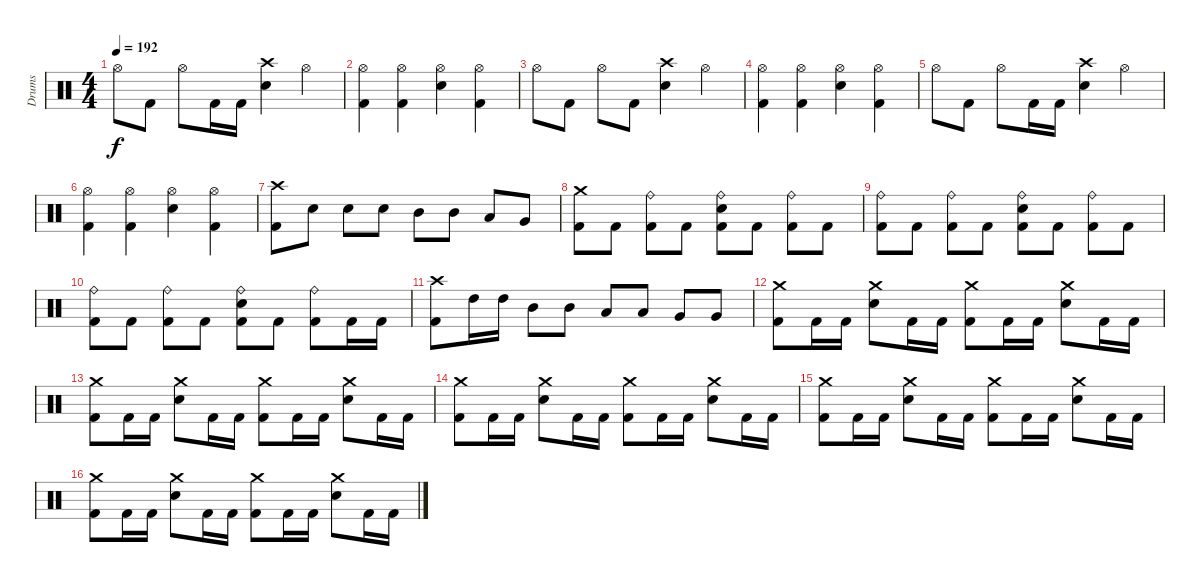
\track ("Drums" "Drums") {instrument percussion}
\staff {score}
\articulation defaults
\ts (4 4)
\tempo 192
\clef neutral
\ks c "Hi-Hat (open)".8{dy f} "Kick (hit) 2".8 "Hi-Hat (open)".8 "Kick (hit) 2".16 "Kick (hit) 2".16
("Crash high (hit)" "Electric Snare (hit)").4 "Hi-Hat (open)".4 |
("Hi-Hat (open)" "Kick (hit) 2").4 ("Hi-Hat (open)" "Kick (hit) 2").4 ("Hi-Hat (open)" "Electric Snare (hit)").4 ("Hi-Hat (open)" "Kick (hit) 2").4 |
"Hi-Hat (open)".8 "Kick (hit) 2".8 "Hi-Hat (open)".8 "Kick (hit) 2".8 ("Crash high (hit)" "Electric Snare (hit)").4 "Hi-Hat (open)".4 |
("Hi-Hat (open)" "Kick (hit) 2").4 ("Hi-Hat (open)" "Kick (hit) 2").4 ("Hi-Hat (open)" "Electric Snare (hit)").4 ("Hi-Hat (open)" "Kick (hit) 2").4 |
"Hi-Hat (open)".8 "Kick (hit) 2".8 "Hi-Hat (open)".8 "Kick (hit) 2".16 "Kick (hit) 2".16 ("Crash high (hit)" "Electric Snare (hit)").4 "Hi-Hat (open)".4 |
("Hi-Hat (open)" "Kick (hit) 2").4 ("Hi-Hat (open)" "Kick (hit) 2").4 ("Hi-Hat (open)" "Electric Snare (hit)").4 ("Hi-Hat (open)" "Kick (hit) 2").4 |
("Crash high (hit)" "Kick (hit) 2").8 "Electric Snare (hit)".8 "Electric Snare (hit)".8 "Electric Snare (hit)".8 "Mid Tom (hit)".8 "Mid Tom (hit)".8 "Low Tom (hit)".8 "Very Low Tom (hit)".8 |
("Crash medium (hit)" "Kick (hit) 2").8 "Kick (hit) 2".8 ("Ride (bell)" "Kick (hit) 2").8 "Kick (hit) 2".8 ("Ride (bell)" "Electric Snare (hit)" "Kick (hit) 2").8 "Kick (hit) 2".8 ("Ride (bell)" "Kick (hit) 2").8 "Kick (hit) 2".8 |
("Ride (bell)" "Kick (hit) 2").8 "Kick (hit) 2".8 ("Ride (bell)" "Kick (hit) 2").8 "Kick (hit) 2".8 ("Ride (bell)" "Electric Snare (hit)" "Kick (hit) 2").8 "Kick (hit) 2".8 ("Ride (bell)" "Kick (hit) 2").8 "Kick (hit) 2".8 |
("Ride (bell)" "Kick (hit) 2").8 "Kick (hit) 2".8 ("Ride (bell)" "Kick (hit) 2").8 "Kick (hit) 2".8 ("Ride (bell)" "Electric Snare (hit)" "Kick (hit) 2").8 "Kick (hit) 2".8 ("Ride (bell)" "Kick (hit) 2").8 "Kick (hit) 2".16 "Kick (hit) 2".16 |
("Crash high (hit)" "Kick (hit) 2").8 "High Tom (hit)".16 "High Tom (hit)".16 "Mid Tom (hit)".8 "Mid Tom (hit)".8 "Low Tom (hit)".8 "Low Tom (hit)".8 "Very Low Tom (hit)".8 "Very Low Tom (hit)".8 |
("Crash medium (hit)" "Kick (hit) 2").8 "Kick (hit) 2".16 "Kick (hit) 2".16 ("Crash medium (hit)" "Electric Snare (hit)").8 "Kick (hit) 2".16 "Kick (hit) 2".16 ("Crash medium (hit)" "Kick (hit) 2").8 "Kick (hit) 2".16 "Kick (hit) 2".16 ("Crash medium (hit)" "Electric Snare (hit)").8 "Kick (hit) 2".16 "Kick (hit) 2".16 |
("Crash medium (hit)" "Kick (hit) 2").8 "Kick (hit) 2".16 "Kick (hit) 2".16 ("Crash medium (hit)" "Electric Snare (hit)").8 "Kick (hit) 2".16 "Kick (hit) 2".16 ("Crash medium (hit)" "Kick (hit) 2").8 "Kick (hit) 2".16 "Kick (hit) 2".16 ("Crash medium (hit)" "Electric Snare (hit)").8 "Kick (hit) 2".16 "Kick (hit) 2".16 |
("Crash medium (hit)" "Kick (hit) 2").8 "Kick (hit) 2".16 "Kick (hit) 2".16 ("Crash medium (hit)" "Electric Snare (hit)").8 "Kick (hit) 2".16 "Kick (hit) 2".16 ("Crash medium (hit)" "Kick (hit) 2").8 "Kick (hit) 2".16 "Kick (hit) 2".16 ("Crash medium (hit)" "Electric Snare (hit)").8 "Kick (hit) 2".16 "Kick (hit) 2".16 |
("Crash medium (hit)" "Kick (hit) 2").8 "Kick (hit) 2".16 "Kick (hit) 2".16 ("Crash medium (hit)" "Electric Snare (hit)").8 "Kick (hit) 2".16 "Kick (hit) 2".16 ("Crash medium (hit)" "Kick (hit) 2").8 "Kick (hit) 2".16 "Kick (hit) 2".16 ("Crash medium (hit)" "Electric Snare (hit)").8 "Kick (hit) 2".16 "Kick (hit) 2".16 |
("Crash medium (hit)" "Kick (hit) 2").8 "Kick (hit) 2".16 "Kick (hit) 2".16 ("Crash medium (hit)" "Electric Snare (hit)").8 "Kick (hit) 2".16 "Kick (hit) 2".16 ("Crash medium (hit)" "Kick (hit) 2").8 "Kick (hit) 2".16 "Kick (hit) 2".16 ("Crash medium (hit)" "Electric Snare (hit)").8 "Kick (hit) 2".16 "Kick (hit) 2".16
